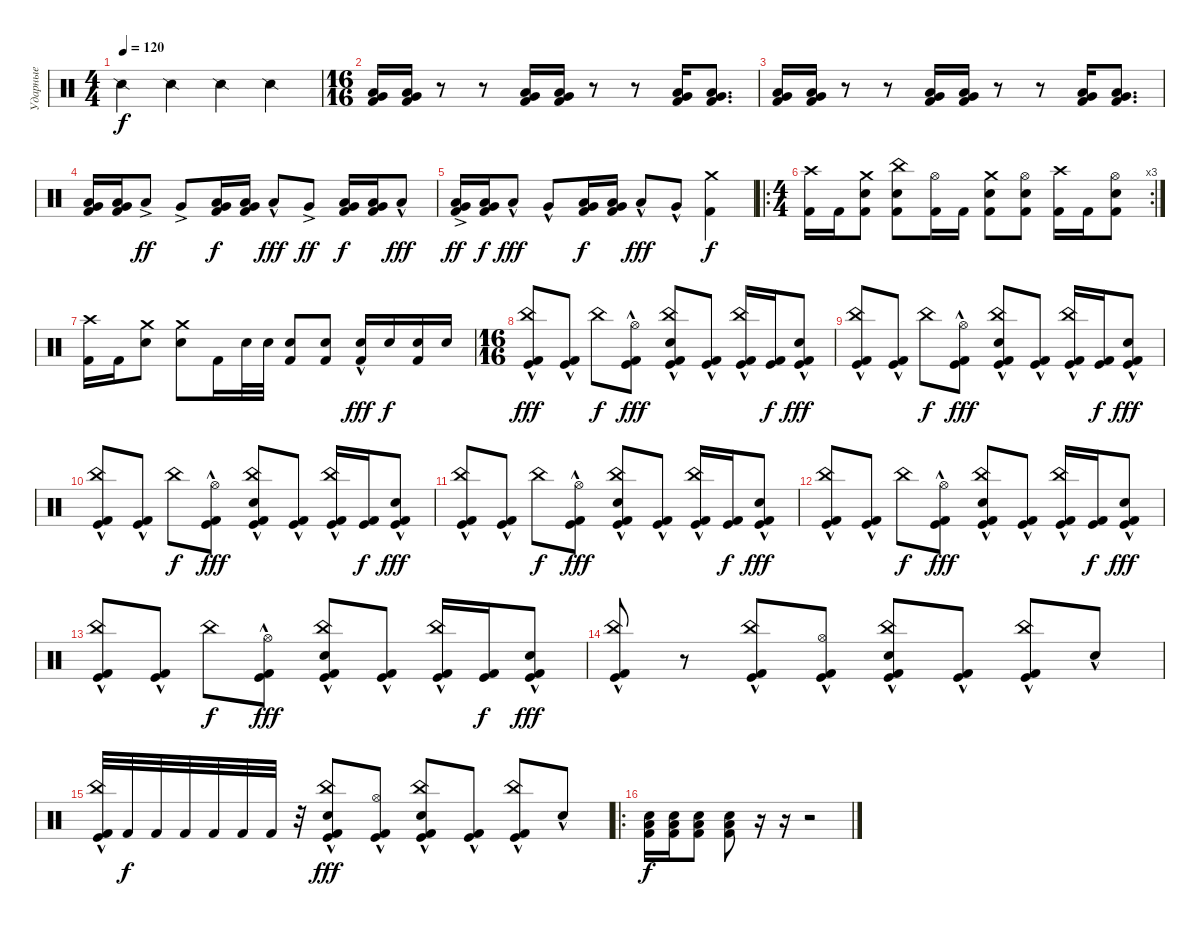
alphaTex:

\track ("Ударные" "Ударные") {instrument percussion}
\staff {score}
\articulation defaults
\ts (4 4)
\tempo 120
\clef neutral
\ks c "Snare (side stick) 2".4{dy f} "Snare (side stick) 2".4 "Snare (side stick) 2".4 "Snare (side stick) 2".4
|
\ts (16 16)
("Very Low Tom (hit)" "Low Floor Tom (hit)" "Kick (hit) 2").16{balance 14} ("Very Low Tom (hit)" "Low Floor Tom (hit)" "Kick (hit) 2").16 r.8 r.8 ("Very Low Tom (hit)" "Low Floor Tom (hit)" "Kick (hit) 2").16 ("Very Low Tom (hit)" "Low Floor Tom (hit)" "Kick (hit) 2").16 r.8 r.8 ("Very Low Tom (hit)" "Low Floor Tom (hit)" "Kick (hit) 2").16 ("Very Low Tom (hit)" "Low Floor Tom (hit)" "Kick (hit) 2").8{d} |
("Very Low Tom (hit)" "Low Floor Tom (hit)" "Kick (hit) 2").16 ("Very Low Tom (hit)" "Low Floor Tom (hit)" "Kick (hit) 2").16 r.8 r.8 ("Very Low Tom (hit)" "Low Floor Tom (hit)" "Kick (hit) 2").16 ("Very Low Tom (hit)" "Low Floor Tom (hit)" "Kick (hit) 2").16 r.8 r.8 ("Very Low Tom (hit)" "Low Floor Tom (hit)" "Kick (hit) 2").16 ("Very Low Tom (hit)" "Low Floor Tom (hit)" "Kick (hit) 2").8{d} |
("Very Low Tom (hit)" "Low Floor Tom (hit)" "Kick (hit) 2").16 ("Very Low Tom (hit)" "Low Floor Tom (hit)" "Kick (hit) 2").16 "Low Tom (hit)"{ac}.8{dy ff balance 3} "Very Low Tom (hit)"{ac}.8{balance 11} ("Very Low Tom (hit)" "Low Floor Tom (hit)" "Kick (hit) 2").16{dy f} ("Very Low Tom (hit)" "Low Floor Tom (hit)" "Kick (hit) 2").16 "Low Tom (hit)"{hac}.8{dy fff balance 3} "Very Low Tom (hit)"{ac}.8{dy ff balance 11} ("Very Low Tom (hit)" "Low Floor Tom (hit)" "Kick (hit) 2").16{dy f} ("Very Low Tom (hit)" "Low Floor Tom (hit)" "Kick (hit) 2").16 "Low Tom (hit)"{hac}.8{dy fff} |
("Very Low Tom (hit)"{ac} "Low Floor Tom (hit)" "Kick (hit) 2").16{dy ff} ("Very Low Tom (hit)" "Low Floor Tom (hit)" "Kick (hit) 2").16{dy f} "Low Tom (hit)"{hac}.8{dy fff} "Very Low Tom (hit)"{hac}.8 ("Very Low Tom (hit)" "Low Floor Tom (hit)" "Kick (hit) 2").16{dy f} ("Very Low Tom (hit)" "Low Floor Tom (hit)" "Kick (hit) 2").16 "Low Tom (hit)"{hac}.8{dy fff} "Very Low Tom (hit)"{hac}.8 ("Crash medium (hit)" "Kick (hit) 2").4{dy f} |
\ro
\rc 3
\ts (4 4)
("Crash high (hit)" "Kick (hit) 2").16{volume 16 balance 8} "Kick (hit) 2".16 ("Crash medium (hit)" "Electric Snare (hit)" "Kick (hit) 2").8 ("China (hit)" "Electric Snare (hit)" "Kick (hit) 2").8 ("Hi-Hat (open)" "Kick (hit) 2").16 "Kick (hit) 2".16 ("Crash medium (hit)" "Electric Snare (hit)" "Kick (hit) 2").8 ("Hi-Hat (open)" "Electric Snare (hit)" "Kick (hit) 2").8 ("Crash high (hit)" "Kick (hit) 2").16 "Kick (hit) 2".16 ("Hi-Hat (open)" "Electric Snare (hit)" "Kick (hit) 2").8 |
("Crash high (hit)" "Kick (hit) 2").16 "Kick (hit) 2".16 ("Crash medium (hit)" "Electric Snare (hit)").8 ("Crash medium (hit)" "Electric Snare (hit)").8 "Kick (hit) 2".16 "Electric Snare (hit)".32 "Electric Snare (hit)".32 ("Electric Snare (hit)" "Kick (hit) 2").8 ("Electric Snare (hit)" "Kick (hit) 2").8 ("Electric Snare (hit)" "Kick (hit) 2"{hac}).16{dy fff} "Electric Snare (hit)".16{dy f} ("Electric Snare (hit)" "Kick (hit) 2").16 "Electric Snare (hit)".16 |
\ts (16 16)
("China (hit)" "Kick (hit)" "Kick (hit) 2"{hac}).8{dy fff} ("Kick (hit)" "Kick (hit) 2"{hac}).8 "China (hit)".8{dy f} ("Hi-Hat (open)" "Kick (hit)" "Kick (hit) 2"{hac}).8{dy fff} ("China (hit)" "Electric Snare (hit)"{hac} "Kick (hit)" "Kick (hit) 2"{hac}).8 ("Kick (hit)" "Kick (hit) 2"{hac}).8 ("China (hit)" "Kick (hit)" "Kick (hit) 2"{hac}).16 ("Kick (hit)" "Kick (hit) 2").16{dy f} ("Electric Snare (hit)"{hac} "Kick (hit)" "Kick (hit) 2").8{dy fff} |
("China (hit)" "Kick (hit)" "Kick (hit) 2"{hac}).8 ("Kick (hit)" "Kick (hit) 2"{hac}).8 "China (hit)".8{dy f} ("Hi-Hat (open)" "Kick (hit)" "Kick (hit) 2"{hac}).8{dy fff} ("China (hit)" "Electric Snare (hit)"{hac} "Kick (hit)" "Kick (hit) 2"{hac}).8 ("Kick (hit)" "Kick (hit) 2"{hac}).8 ("China (hit)" "Kick (hit)" "Kick (hit) 2"{hac}).16 ("Kick (hit)" "Kick (hit) 2").16{dy f} ("Electric Snare (hit)"{hac} "Kick (hit)" "Kick (hit) 2").8{dy fff} |
("China (hit)" "Kick (hit)" "Kick (hit) 2"{hac}).8 ("Kick (hit)" "Kick (hit) 2"{hac}).8 "China (hit)".8{dy f} ("Hi-Hat (open)" "Kick (hit)" "Kick (hit) 2"{hac}).8{dy fff} ("China (hit)" "Electric Snare (hit)"{hac} "Kick (hit)" "Kick (hit) 2"{hac}).8 ("Kick (hit)" "Kick (hit) 2"{hac}).8 ("China (hit)" "Kick (hit)" "Kick (hit) 2"{hac}).16 ("Kick (hit)" "Kick (hit) 2").16{dy f} ("Electric Snare (hit)"{hac} "Kick (hit)" "Kick (hit) 2").8{dy fff} |
("China (hit)" "Kick (hit)" "Kick (hit) 2"{hac}).8 ("Kick (hit)" "Kick (hit) 2"{hac}).8 "China (hit)".8{dy f} ("Hi-Hat (open)" "Kick (hit)" "Kick (hit) 2"{hac}).8{dy fff} ("China (hit)" "Electric Snare (hit)"{hac} "Kick (hit)" "Kick (hit) 2"{hac}).8 ("Kick (hit)" "Kick (hit) 2"{hac}).8 ("China (hit)" "Kick (hit)" "Kick (hit) 2"{hac}).16 ("Kick (hit)" "Kick (hit) 2").16{dy f} ("Electric Snare (hit)"{hac} "Kick (hit)" "Kick (hit) 2").8{dy fff} |
("China (hit)" "Kick (hit)" "Kick (hit) 2"{hac}).8 ("Kick (hit)" "Kick (hit) 2"{hac}).8 "China (hit)".8{dy f} ("Hi-Hat (open)" "Kick (hit)" "Kick (hit) 2"{hac}).8{dy fff} ("China (hit)" "Electric Snare (hit)"{hac} "Kick (hit)" "Kick (hit) 2"{hac}).8 ("Kick (hit)" "Kick (hit) 2"{hac}).8 ("China (hit)" "Kick (hit)" "Kick (hit) 2"{hac}).16 ("Kick (hit)" "Kick (hit) 2").16{dy f} ("Electric Snare (hit)"{hac} "Kick (hit)" "Kick (hit) 2").8{dy fff} |
("China (hit)" "Kick (hit)" "Kick (hit) 2"{hac}).8 ("Kick (hit)" "Kick (hit) 2"{hac}).8 "China (hit)".8{dy f} ("Hi-Hat (open)" "Kick (hit)" "Kick (hit) 2"{hac}).8{dy fff} ("China (hit)" "Electric Snare (hit)"{hac} "Kick (hit)" "Kick (hit) 2"{hac}).8 ("Kick (hit)" "Kick (hit) 2"{hac}).8 ("China (hit)" "Kick (hit)" "Kick (hit) 2"{hac}).16 ("Kick (hit)" "Kick (hit) 2").16{dy f} ("Electric Snare (hit)"{hac} "Kick (hit)" "Kick (hit) 2").8{dy fff} |
("China (hit)" "Kick (hit)" "Kick (hit) 2"{hac}).8 r.8 ("China (hit)" "Kick (hit)" "Kick (hit) 2"{hac}).8 ("Hi-Hat (open)" "Kick (hit)" "Kick (hit) 2"{hac}).8 ("China (hit)" "Electric Snare (hit)"{hac} "Kick (hit)" "Kick (hit) 2"{hac}).8 ("Kick (hit)" "Kick (hit) 2"{hac}).8 ("China (hit)" "Kick (hit)" "Kick (hit) 2"{hac}).8 "Electric Snare (hit)"{hac}.8 |
("China (hit)" "Kick (hit)" "Kick (hit) 2"{hac}).32 "Kick (hit) 2".32{dy f} "Kick (hit) 2".32 "Kick (hit) 2".32 "Kick (hit) 2".32 "Kick (hit) 2".32 "Kick (hit) 2".32 r.32 ("China (hit)" "Electric Snare (hit)" "Kick (hit)" "Kick (hit) 2"{hac}).8{dy fff} ("Hi-Hat (open)" "Kick (hit)" "Kick (hit) 2"{hac}).8 ("China (hit)" "Electric Snare (hit)"{hac} "Kick (hit)" "Kick (hit) 2"{hac}).8 ("Kick (hit)" "Kick (hit) 2"{hac}).8 ("China (hit)" "Kick (hit)" "Kick (hit) 2"{hac}).8 "Electric Snare (hit)"{hac}.8 |
\ro
("Electric Snare (hit)" "Low Floor Tom (hit)" "Kick (hit) 2").16{dy f} ("Electric Snare (hit)" "Low Floor Tom (hit)" "Kick (hit) 2").16 ("Electric Snare (hit)" "Low Floor Tom (hit)" "Kick (hit) 2").8 ("Electric Snare (hit)" "Low Floor Tom (hit)" "Kick (hit) 2").8 r.16 r.16 r.2
